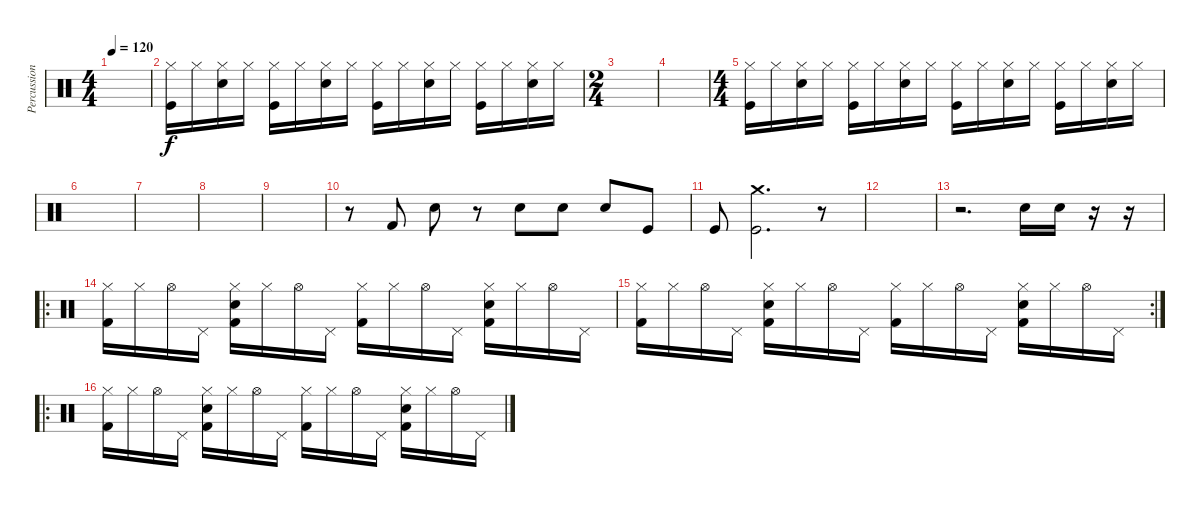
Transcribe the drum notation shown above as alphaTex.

\track ("Percussion" "Percussion") {instrument percussion}
\staff {score}
\articulation defaults
\ts (4 4)
\tempo 120
\clef neutral
\ks c
|
("Hi-Hat (closed)" "Kick (hit)").16 "Hi-Hat (closed)".16 ("Hi-Hat (closed)" "Snare (hit) 2").16 "Hi-Hat (closed)".16 ("Hi-Hat (closed)" "Kick (hit)").16 "Hi-Hat (closed)".16 ("Hi-Hat (closed)" "Snare (hit) 2").16 "Hi-Hat (closed)".16 ("Hi-Hat (closed)" "Kick (hit)").16 "Hi-Hat (closed)".16 ("Hi-Hat (closed)" "Snare (hit) 2").16 "Hi-Hat (closed)".16 ("Hi-Hat (closed)" "Kick (hit)").16 "Hi-Hat (closed)".16 ("Hi-Hat (closed)" "Snare (hit) 2").16 "Hi-Hat (closed)".16 |
\ts (2 4)
|
|
\ts (4 4)
("Hi-Hat (closed)" "Kick (hit)").16 "Hi-Hat (closed)".16 ("Hi-Hat (closed)" "Snare (hit) 2").16 "Hi-Hat (closed)".16 ("Hi-Hat (closed)" "Kick (hit)").16 "Hi-Hat (closed)".16 ("Hi-Hat (closed)" "Snare (hit) 2").16 "Hi-Hat (closed)".16 ("Hi-Hat (closed)" "Kick (hit)").16 "Hi-Hat (closed)".16 ("Hi-Hat (closed)" "Snare (hit) 2").16 "Hi-Hat (closed)".16 ("Hi-Hat (closed)" "Kick (hit)").16 "Hi-Hat (closed)".16 ("Hi-Hat (closed)" "Snare (hit) 2").16 "Hi-Hat (closed)".16 |
|
|
|
|
r.8 "Kick (hit) 2".8 "Snare (hit) 2".8 r.8 "Snare (hit) 2".8 "Snare (hit) 2".8 "Snare (hit) 2".8 "Kick (hit)".8 |
"Kick (hit)".8 ("Crash medium (hit)" "Kick (hit)").2{d} r.8 |
|
r.2{d} "Snare (hit) 2".16 "Snare (hit) 2".16 r.16 r.16 |
\ro
("Hi-Hat (closed)" "Kick (hit) 2").16 "Hi-Hat (closed)".16 "Hi-Hat (open)".16 "Pedal Hi-Hat (hit)".16 ("Hi-Hat (closed)" "Snare (hit) 2" "Kick (hit) 2").16 "Hi-Hat (closed)".16 "Hi-Hat (open)".16 "Pedal Hi-Hat (hit)".16 ("Hi-Hat (closed)" "Kick (hit) 2").16 "Hi-Hat (closed)".16 "Hi-Hat (open)".16 "Pedal Hi-Hat (hit)".16 ("Hi-Hat (closed)" "Snare (hit) 2" "Kick (hit) 2").16 "Hi-Hat (closed)".16 "Hi-Hat (open)".16 "Pedal Hi-Hat (hit)".16 |
\rc 2
("Hi-Hat (closed)" "Kick (hit) 2").16 "Hi-Hat (closed)".16 "Hi-Hat (open)".16 "Pedal Hi-Hat (hit)".16 ("Hi-Hat (closed)" "Snare (hit) 2" "Kick (hit) 2").16 "Hi-Hat (closed)".16 "Hi-Hat (open)".16 "Pedal Hi-Hat (hit)".16 ("Hi-Hat (closed)" "Kick (hit) 2").16 "Hi-Hat (closed)".16 "Hi-Hat (open)".16 "Pedal Hi-Hat (hit)".16 ("Hi-Hat (closed)" "Snare (hit) 2" "Kick (hit) 2").16 "Hi-Hat (closed)".16 "Hi-Hat (open)".16 "Pedal Hi-Hat (hit)".16 |
\ro
("Hi-Hat (closed)" "Kick (hit) 2").16 "Hi-Hat (closed)".16 "Hi-Hat (open)".16 "Pedal Hi-Hat (hit)".16 ("Hi-Hat (closed)" "Snare (hit) 2" "Kick (hit) 2").16 "Hi-Hat (closed)".16 "Hi-Hat (open)".16 "Pedal Hi-Hat (hit)".16 ("Hi-Hat (closed)" "Kick (hit) 2").16 "Hi-Hat (closed)".16 "Hi-Hat (open)".16 "Pedal Hi-Hat (hit)".16 ("Hi-Hat (closed)" "Snare (hit) 2" "Kick (hit) 2").16 "Hi-Hat (closed)".16 "Hi-Hat (open)".16 "Pedal Hi-Hat (hit)".16
